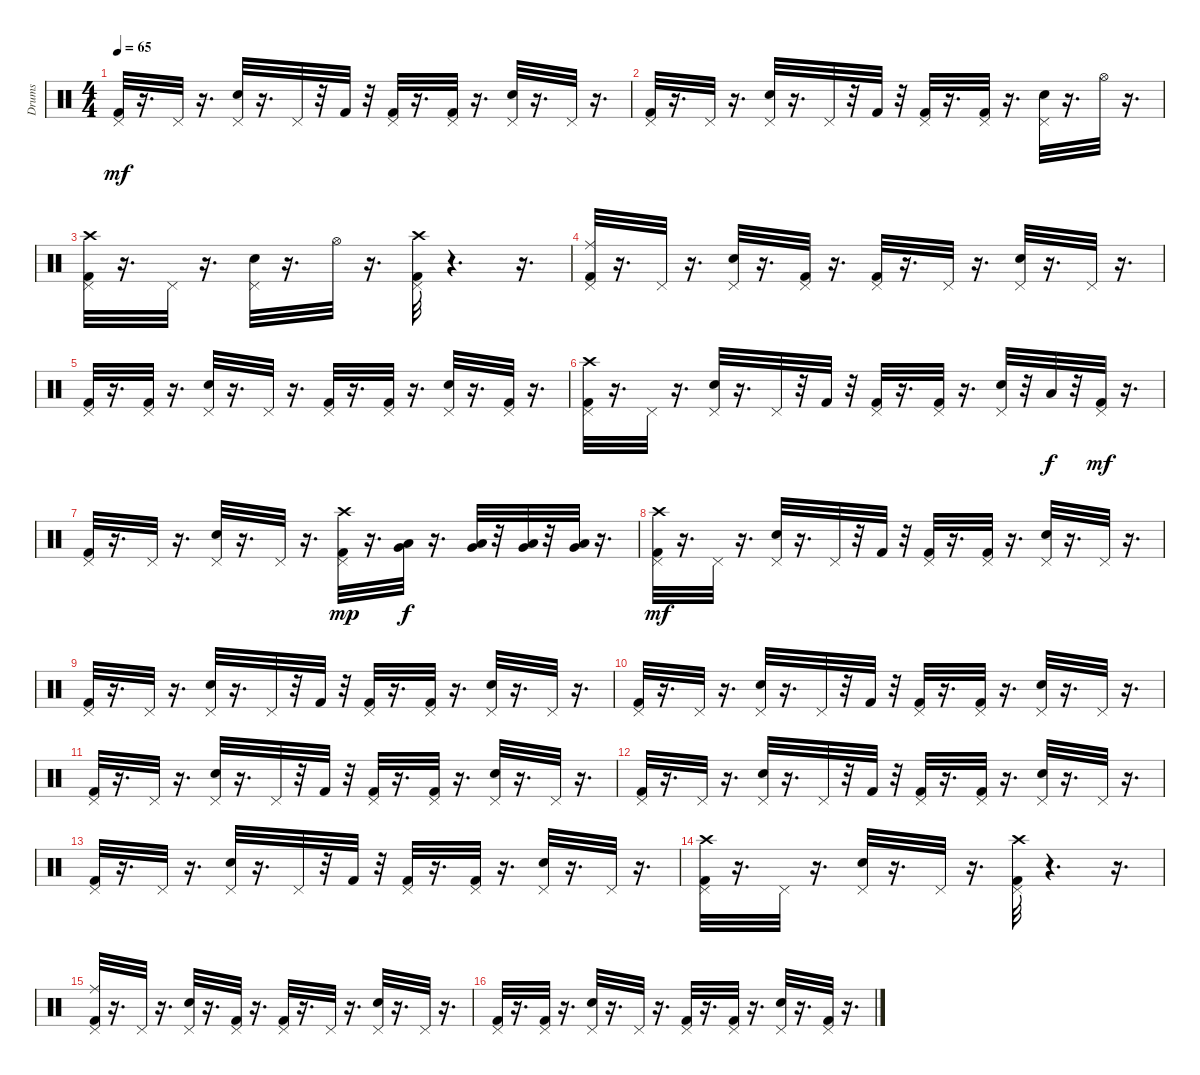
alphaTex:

\track ("Drums" "Drums") {instrument percussion}
\staff {score}
\articulation defaults
\ts (4 4)
\tempo 65
\clef neutral
\ks c
("Pedal Hi-Hat (hit)" "Kick (hit) 2").32{dy mf} r.16{d} "Pedal Hi-Hat (hit)".32 r.16{d} ("Snare (hit) 2" "Pedal Hi-Hat (hit)").32 r.16{d} "Pedal Hi-Hat (hit)".32 r.32 "Kick (hit) 2".32 r.32 ("Pedal Hi-Hat (hit)" "Kick (hit) 2").32 r.16{d} ("Pedal Hi-Hat (hit)" "Kick (hit) 2").32 r.16{d} ("Pedal Hi-Hat (hit)" "Snare (hit) 2").32 r.16{d} "Pedal Hi-Hat (hit)".32 r.16{d} |
("Pedal Hi-Hat (hit)" "Kick (hit) 2").32 r.16{d} "Pedal Hi-Hat (hit)".32 r.16{d} ("Snare (hit) 2" "Pedal Hi-Hat (hit)").32 r.16{d} "Pedal Hi-Hat (hit)".32 r.32 "Kick (hit) 2".32 r.32 ("Pedal Hi-Hat (hit)" "Kick (hit) 2").32 r.16{d} ("Pedal Hi-Hat (hit)" "Kick (hit) 2").32 r.16{d} ("Pedal Hi-Hat (hit)" "Snare (hit) 2").32 r.16{d} "Hi-Hat (open)".32 r.16{d} |
("Crash high (hit)" "Pedal Hi-Hat (hit)" "Kick (hit) 2").32 r.16{d} "Pedal Hi-Hat (hit)".32 r.16{d} ("Snare (hit) 2" "Pedal Hi-Hat (hit)").32 r.16{d} "Hi-Hat (open)".32 r.16{d} ("Crash high (hit)" "Pedal Hi-Hat (hit)" "Kick (hit) 2").32 r.4{d} r.16{d} |
("Ride (middle)" "Pedal Hi-Hat (hit)" "Kick (hit) 2").32 r.16{d} "Pedal Hi-Hat (hit)".32 r.16{d} ("Snare (hit) 2" "Pedal Hi-Hat (hit)").32 r.16{d} ("Pedal Hi-Hat (hit)" "Kick (hit) 2").32 r.16{d} ("Pedal Hi-Hat (hit)" "Kick (hit) 2").32 r.16{d} "Pedal Hi-Hat (hit)".32 r.16{d} ("Pedal Hi-Hat (hit)" "Snare (hit) 2").32 r.16{d} "Pedal Hi-Hat (hit)".32 r.16{d} |
("Pedal Hi-Hat (hit)" "Kick (hit) 2").32 r.16{d} ("Kick (hit) 2" "Pedal Hi-Hat (hit)").32 r.16{d} ("Snare (hit) 2" "Pedal Hi-Hat (hit)").32 r.16{d} "Pedal Hi-Hat (hit)".32 r.16{d} ("Pedal Hi-Hat (hit)" "Kick (hit) 2").32 r.16{d} ("Pedal Hi-Hat (hit)" "Kick (hit) 2").32 r.16{d} ("Pedal Hi-Hat (hit)" "Snare (hit) 2").32 r.16{d} ("Pedal Hi-Hat (hit)" "Kick (hit) 2").32 r.16{d} |
("Crash high (hit)" "Pedal Hi-Hat (hit)" "Kick (hit) 2").32 r.16{d} "Pedal Hi-Hat (hit)".32 r.16{d} ("Snare (hit) 2" "Pedal Hi-Hat (hit)").32 r.16{d} "Pedal Hi-Hat (hit)".32 r.32 "Kick (hit) 2".32 r.32 ("Pedal Hi-Hat (hit)" "Kick (hit) 2").32 r.16{d} ("Pedal Hi-Hat (hit)" "Kick (hit) 2").32 r.16{d} ("Pedal Hi-Hat (hit)" "Snare (hit) 2").32 r.32 "Low Tom (hit)".32{dy f} r.32 ("Kick (hit) 2" "Pedal Hi-Hat (hit)").32{dy mf} r.16{d} |
("Pedal Hi-Hat (hit)" "Kick (hit) 2").32 r.16{d} "Pedal Hi-Hat (hit)".32 r.16{d} ("Snare (hit) 2" "Pedal Hi-Hat (hit)").32 r.16{d} "Pedal Hi-Hat (hit)".32 r.16{d} ("Pedal Hi-Hat (hit)" "Kick (hit) 2" "Crash high (hit)").32{dy mp} r.16{d} ("Very Low Tom (hit)" "Low Floor Tom (hit)").32{dy f} r.16{d} ("Very Low Tom (hit)" "Low Floor Tom (hit)").32 r.32 ("Very Low Tom (hit)" "Low Floor Tom (hit)").32 r.32 ("Very Low Tom (hit)" "Low Floor Tom (hit)").32 r.16{d} |
("Crash high (hit)" "Pedal Hi-Hat (hit)" "Kick (hit) 2").32{dy mf} r.16{d} "Pedal Hi-Hat (hit)".32 r.16{d} ("Snare (hit) 2" "Pedal Hi-Hat (hit)").32 r.16{d} "Pedal Hi-Hat (hit)".32 r.32 "Kick (hit) 2".32 r.32 ("Pedal Hi-Hat (hit)" "Kick (hit) 2").32 r.16{d} ("Pedal Hi-Hat (hit)" "Kick (hit) 2").32 r.16{d} ("Pedal Hi-Hat (hit)" "Snare (hit) 2").32 r.16{d} "Pedal Hi-Hat (hit)".32 r.16{d} |
("Pedal Hi-Hat (hit)" "Kick (hit) 2").32 r.16{d} "Pedal Hi-Hat (hit)".32 r.16{d} ("Snare (hit) 2" "Pedal Hi-Hat (hit)").32 r.16{d} "Pedal Hi-Hat (hit)".32 r.32 "Kick (hit) 2".32 r.32 ("Pedal Hi-Hat (hit)" "Kick (hit) 2").32 r.16{d} ("Pedal Hi-Hat (hit)" "Kick (hit) 2").32 r.16{d} ("Pedal Hi-Hat (hit)" "Snare (hit) 2").32 r.16{d} "Pedal Hi-Hat (hit)".32 r.16{d} |
("Pedal Hi-Hat (hit)" "Kick (hit) 2").32 r.16{d} "Pedal Hi-Hat (hit)".32 r.16{d} ("Snare (hit) 2" "Pedal Hi-Hat (hit)").32 r.16{d} "Pedal Hi-Hat (hit)".32 r.32 "Kick (hit) 2".32 r.32 ("Pedal Hi-Hat (hit)" "Kick (hit) 2").32 r.16{d} ("Pedal Hi-Hat (hit)" "Kick (hit) 2").32 r.16{d} ("Pedal Hi-Hat (hit)" "Snare (hit) 2").32 r.16{d} "Pedal Hi-Hat (hit)".32 r.16{d} |
("Pedal Hi-Hat (hit)" "Kick (hit) 2").32 r.16{d} "Pedal Hi-Hat (hit)".32 r.16{d} ("Snare (hit) 2" "Pedal Hi-Hat (hit)").32 r.16{d} "Pedal Hi-Hat (hit)".32 r.32 "Kick (hit) 2".32 r.32 ("Pedal Hi-Hat (hit)" "Kick (hit) 2").32 r.16{d} ("Pedal Hi-Hat (hit)" "Kick (hit) 2").32 r.16{d} ("Pedal Hi-Hat (hit)" "Snare (hit) 2").32 r.16{d} "Pedal Hi-Hat (hit)".32 r.16{d} |
("Pedal Hi-Hat (hit)" "Kick (hit) 2").32 r.16{d} "Pedal Hi-Hat (hit)".32 r.16{d} ("Snare (hit) 2" "Pedal Hi-Hat (hit)").32 r.16{d} "Pedal Hi-Hat (hit)".32 r.32 "Kick (hit) 2".32 r.32 ("Pedal Hi-Hat (hit)" "Kick (hit) 2").32 r.16{d} ("Pedal Hi-Hat (hit)" "Kick (hit) 2").32 r.16{d} ("Pedal Hi-Hat (hit)" "Snare (hit) 2").32 r.16{d} "Pedal Hi-Hat (hit)".32 r.16{d} |
("Pedal Hi-Hat (hit)" "Kick (hit) 2").32 r.16{d} "Pedal Hi-Hat (hit)".32 r.16{d} ("Snare (hit) 2" "Pedal Hi-Hat (hit)").32 r.16{d} "Pedal Hi-Hat (hit)".32 r.32 "Kick (hit) 2".32 r.32 ("Pedal Hi-Hat (hit)" "Kick (hit) 2").32 r.16{d} ("Pedal Hi-Hat (hit)" "Kick (hit) 2").32 r.16{d} ("Pedal Hi-Hat (hit)" "Snare (hit) 2").32 r.16{d} "Pedal Hi-Hat (hit)".32 r.16{d} |
("Crash high (hit)" "Pedal Hi-Hat (hit)" "Kick (hit) 2").32 r.16{d} "Pedal Hi-Hat (hit)".32 r.16{d} ("Snare (hit) 2" "Pedal Hi-Hat (hit)").32 r.16{d} "Pedal Hi-Hat (hit)".32 r.16{d} ("Crash high (hit)" "Pedal Hi-Hat (hit)" "Kick (hit) 2").32 r.4{d} r.16{d} |
("Ride (middle)" "Pedal Hi-Hat (hit)" "Kick (hit) 2").32 r.16{d} "Pedal Hi-Hat (hit)".32 r.16{d} ("Snare (hit) 2" "Pedal Hi-Hat (hit)").32 r.16{d} ("Pedal Hi-Hat (hit)" "Kick (hit) 2").32 r.16{d} ("Pedal Hi-Hat (hit)" "Kick (hit) 2").32 r.16{d} "Pedal Hi-Hat (hit)".32 r.16{d} ("Pedal Hi-Hat (hit)" "Snare (hit) 2").32 r.16{d} "Pedal Hi-Hat (hit)".32 r.16{d} |
("Pedal Hi-Hat (hit)" "Kick (hit) 2").32 r.16{d} ("Kick (hit) 2" "Pedal Hi-Hat (hit)").32 r.16{d} ("Snare (hit) 2" "Pedal Hi-Hat (hit)").32 r.16{d} "Pedal Hi-Hat (hit)".32 r.16{d} ("Pedal Hi-Hat (hit)" "Kick (hit) 2").32 r.16{d} ("Pedal Hi-Hat (hit)" "Kick (hit) 2").32 r.16{d} ("Pedal Hi-Hat (hit)" "Snare (hit) 2").32 r.16{d} ("Pedal Hi-Hat (hit)" "Kick (hit) 2").32 r.16{d}
